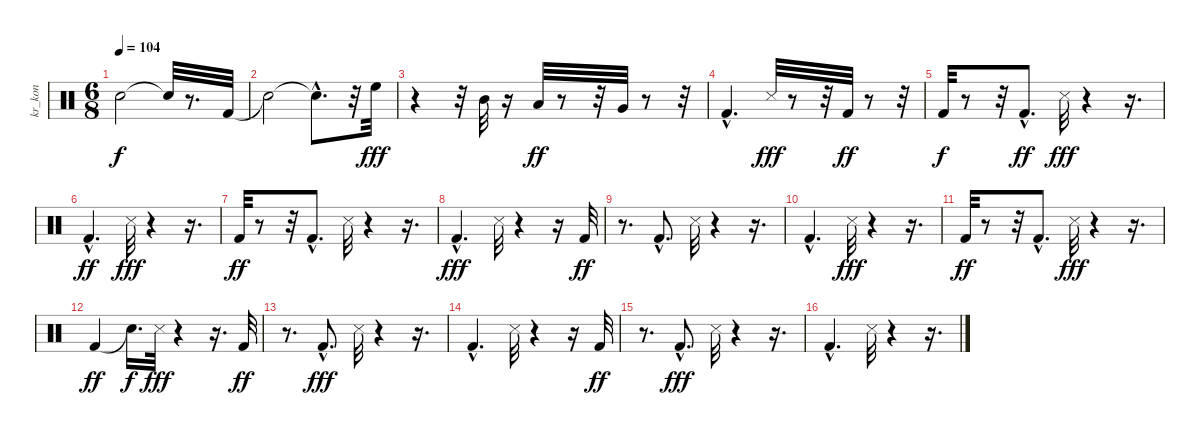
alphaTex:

\track ("kr_kon" "kr_kon") {instrument percussion}
\staff {score}
\articulation defaults
\ts (6 8)
\tempo 104
\clef neutral
\ks c "Snare (hit)"{t}.2{dy f} "Snare (hit)"{t}.32
r.8{d} "Kick (hit) 2".32 |
"Snare (hit)"{t}.2 "Snare (hit)"{hac t}.8{d} r.32 "High Floor Tom (hit)".32{dy fff} |
r.4 r.32 "Mid Tom (hit)".32 r.16 "Low Tom (hit)".32{dy ff} r.8 r.32 "Very Low Tom (hit)".32 r.8 r.32 |
"Kick (hit) 2"{hac}.4{d} "Snare (side stick) 3".32{dy fff} r.8 r.32 "Kick (hit) 2".32{dy ff} r.8 r.32 |
"Kick (hit) 2".32{dy f} r.8 r.32 "Kick (hit) 2"{hac}.8{d dy ff} "Snare (side stick) 3".32{dy fff} r.4 r.16{d} |
"Kick (hit) 2"{hac}.4{d dy ff} "Snare (side stick) 3".32{dy fff} r.4 r.16{d} |
"Kick (hit) 2".32{dy ff} r.8 r.32 "Kick (hit) 2"{hac}.8{d} "Snare (side stick) 3".32 r.4 r.16{d} |
"Kick (hit) 2"{hac}.4{d dy fff} "Snare (side stick) 3".32 r.4 r.16 "Kick (hit) 2".32{dy ff} |
r.8{d} "Kick (hit) 2"{hac}.8{d} "Snare (side stick) 3".32 r.4 r.16{d} |
"Kick (hit) 2"{hac}.4{d} "Snare (side stick) 3".32{dy fff} r.4 r.16{d} |
"Kick (hit) 2".32{dy ff} r.8 r.32 "Kick (hit) 2"{hac}.8{d} "Snare (side stick) 3".32{dy fff} r.4 r.16{d} |
"Kick (hit) 2".4{dy ff} "Snare (hit)"{t}.16{d dy f} "Snare (side stick) 3".32{dy fff} r.4 r.16{d} "Kick (hit) 2".32{dy ff} |
r.8{d} "Kick (hit) 2"{hac}.8{d dy fff} "Snare (side stick) 3".32 r.4 r.16{d} |
"Kick (hit) 2"{hac}.4{d} "Snare (side stick) 3".32 r.4 r.16 "Kick (hit) 2".32{dy ff} |
r.8{d} "Kick (hit) 2"{hac}.8{d dy fff} "Snare (side stick) 3".32 r.4 r.16{d} |
"Kick (hit) 2"{hac}.4{d} "Snare (side stick) 3".32 r.4 r.16{d}
